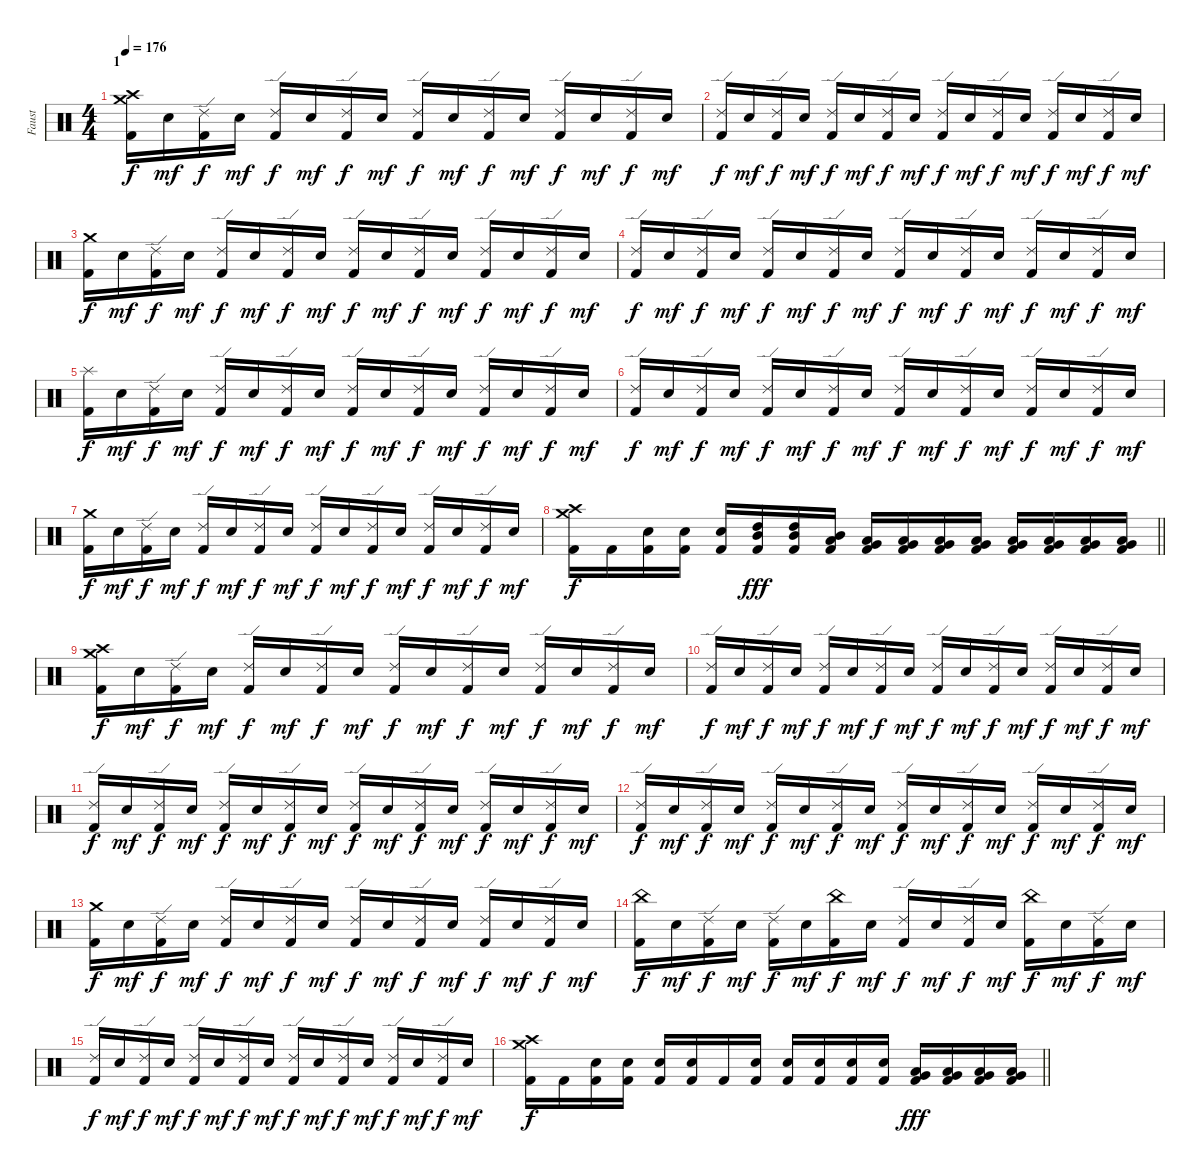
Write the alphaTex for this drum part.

\track ("Faust" "Faust") {instrument percussion}
\staff {score}
\articulation defaults
\ts (4 4)
\section ("" "1")
\tempo 176
\clef neutral
\ks c
("Crash high (hit)" "Crash medium (hit)" "Kick (hit) 2").16{dy f} "Electric Snare (hit)".16{dy mf} ("Ride (edge) 2" "Kick (hit) 2").16{dy f} "Electric Snare (hit)".16{dy mf} ("Ride (edge) 2" "Kick (hit) 2").16{dy f} "Electric Snare (hit)".16{dy mf} ("Ride (edge) 2" "Kick (hit) 2").16{dy f} "Electric Snare (hit)".16{dy mf} ("Ride (edge) 2" "Kick (hit) 2").16{dy f} "Electric Snare (hit)".16{dy mf} ("Ride (edge) 2" "Kick (hit) 2").16{dy f} "Electric Snare (hit)".16{dy mf} ("Ride (edge) 2" "Kick (hit) 2").16{dy f} "Electric Snare (hit)".16{dy mf} ("Ride (edge) 2" "Kick (hit) 2").16{dy f} "Electric Snare (hit)".16{dy mf} |
("Ride (edge) 2" "Kick (hit) 2").16{dy f} "Electric Snare (hit)".16{dy mf} ("Ride (edge) 2" "Kick (hit) 2").16{dy f} "Electric Snare (hit)".16{dy mf} ("Ride (edge) 2" "Kick (hit) 2").16{dy f} "Electric Snare (hit)".16{dy mf} ("Ride (edge) 2" "Kick (hit) 2").16{dy f} "Electric Snare (hit)".16{dy mf} ("Ride (edge) 2" "Kick (hit) 2").16{dy f} "Electric Snare (hit)".16{dy mf} ("Ride (edge) 2" "Kick (hit) 2").16{dy f} "Electric Snare (hit)".16{dy mf} ("Ride (edge) 2" "Kick (hit) 2").16{dy f} "Electric Snare (hit)".16{dy mf} ("Ride (edge) 2" "Kick (hit) 2").16{dy f} "Electric Snare (hit)".16{dy mf} |
("Crash medium (hit)" "Kick (hit) 2").16{dy f} "Electric Snare (hit)".16{dy mf} ("Ride (edge) 2" "Kick (hit) 2").16{dy f} "Electric Snare (hit)".16{dy mf} ("Ride (edge) 2" "Kick (hit) 2").16{dy f} "Electric Snare (hit)".16{dy mf} ("Ride (edge) 2" "Kick (hit) 2").16{dy f} "Electric Snare (hit)".16{dy mf} ("Ride (edge) 2" "Kick (hit) 2").16{dy f} "Electric Snare (hit)".16{dy mf} ("Ride (edge) 2" "Kick (hit) 2").16{dy f} "Electric Snare (hit)".16{dy mf} ("Ride (edge) 2" "Kick (hit) 2").16{dy f} "Electric Snare (hit)".16{dy mf} ("Ride (edge) 2" "Kick (hit) 2").16{dy f} "Electric Snare (hit)".16{dy mf} |
("Ride (edge) 2" "Kick (hit) 2").16{dy f} "Electric Snare (hit)".16{dy mf} ("Ride (edge) 2" "Kick (hit) 2").16{dy f} "Electric Snare (hit)".16{dy mf} ("Ride (edge) 2" "Kick (hit) 2").16{dy f} "Electric Snare (hit)".16{dy mf} ("Ride (edge) 2" "Kick (hit) 2").16{dy f} "Electric Snare (hit)".16{dy mf} ("Ride (edge) 2" "Kick (hit) 2").16{dy f} "Electric Snare (hit)".16{dy mf} ("Ride (edge) 2" "Kick (hit) 2").16{dy f} "Electric Snare (hit)".16{dy mf} ("Ride (edge) 2" "Kick (hit) 2").16{dy f} "Electric Snare (hit)".16{dy mf} ("Ride (edge) 2" "Kick (hit) 2").16{dy f} "Electric Snare (hit)".16{dy mf} |
("Splash (hit)" "Kick (hit) 2").16{dy f} "Electric Snare (hit)".16{dy mf} ("Ride (edge) 2" "Kick (hit) 2").16{dy f} "Electric Snare (hit)".16{dy mf} ("Ride (edge) 2" "Kick (hit) 2").16{dy f} "Electric Snare (hit)".16{dy mf} ("Ride (edge) 2" "Kick (hit) 2").16{dy f} "Electric Snare (hit)".16{dy mf} ("Ride (edge) 2" "Kick (hit) 2").16{dy f} "Electric Snare (hit)".16{dy mf} ("Ride (edge) 2" "Kick (hit) 2").16{dy f} "Electric Snare (hit)".16{dy mf} ("Ride (edge) 2" "Kick (hit) 2").16{dy f} "Electric Snare (hit)".16{dy mf} ("Ride (edge) 2" "Kick (hit) 2").16{dy f} "Electric Snare (hit)".16{dy mf} |
("Ride (edge) 2" "Kick (hit) 2").16{dy f} "Electric Snare (hit)".16{dy mf} ("Ride (edge) 2" "Kick (hit) 2").16{dy f} "Electric Snare (hit)".16{dy mf} ("Ride (edge) 2" "Kick (hit) 2").16{dy f} "Electric Snare (hit)".16{dy mf} ("Ride (edge) 2" "Kick (hit) 2").16{dy f} "Electric Snare (hit)".16{dy mf} ("Ride (edge) 2" "Kick (hit) 2").16{dy f} "Electric Snare (hit)".16{dy mf} ("Ride (edge) 2" "Kick (hit) 2").16{dy f} "Electric Snare (hit)".16{dy mf} ("Ride (edge) 2" "Kick (hit) 2").16{dy f} "Electric Snare (hit)".16{dy mf} ("Ride (edge) 2" "Kick (hit) 2").16{dy f} "Electric Snare (hit)".16{dy mf} |
("Crash medium (hit)" "Kick (hit) 2").16{dy f} "Electric Snare (hit)".16{dy mf} ("Ride (edge) 2" "Kick (hit) 2").16{dy f} "Electric Snare (hit)".16{dy mf} ("Ride (edge) 2" "Kick (hit) 2").16{dy f} "Electric Snare (hit)".16{dy mf} ("Ride (edge) 2" "Kick (hit) 2").16{dy f} "Electric Snare (hit)".16{dy mf} ("Ride (edge) 2" "Kick (hit) 2").16{dy f} "Electric Snare (hit)".16{dy mf} ("Ride (edge) 2" "Kick (hit) 2").16{dy f} "Electric Snare (hit)".16{dy mf} ("Ride (edge) 2" "Kick (hit) 2").16{dy f} "Electric Snare (hit)".16{dy mf} ("Ride (edge) 2" "Kick (hit) 2").16{dy f} "Electric Snare (hit)".16{dy mf} |
\barLineRight lightlight
("Crash medium (hit)" "Crash high (hit)" "Kick (hit) 2").16{dy f} "Kick (hit) 2".16 ("Electric Snare (hit)" "Kick (hit) 2").16 ("Electric Snare (hit)" "Kick (hit) 2").16 ("Electric Snare (hit)" "Kick (hit) 2").16 ("High Tom (hit)" "Mid Tom (hit)" "Kick (hit) 2").16{dy fff} ("High Tom (hit)" "Mid Tom (hit)" "Kick (hit) 2").16 ("Mid Tom (hit)" "Low Tom (hit)" "Kick (hit) 2").16 ("Low Tom (hit)" "Very Low Tom (hit)" "Kick (hit) 2").16 ("Low Tom (hit)" "Very Low Tom (hit)" "Kick (hit) 2").16 ("Low Tom (hit)" "Very Low Tom (hit)" "Kick (hit) 2").16 ("Low Tom (hit)" "Very Low Tom (hit)" "Kick (hit) 2").16 ("Very Low Tom (hit)" "Low Floor Tom (hit)" "Kick (hit) 2").16 ("Very Low Tom (hit)" "Low Floor Tom (hit)" "Kick (hit) 2").16 ("Very Low Tom (hit)" "Low Floor Tom (hit)" "Kick (hit) 2").16 ("Very Low Tom (hit)" "Low Floor Tom (hit)" "Kick (hit) 2").16 |
\section ("" "")
("Crash high (hit)" "Crash medium (hit)" "Kick (hit) 2").16{dy f} "Electric Snare (hit)".16{dy mf} ("Ride (edge) 2" "Kick (hit) 2").16{dy f} "Electric Snare (hit)".16{dy mf} ("Ride (edge) 2" "Kick (hit) 2").16{dy f} "Electric Snare (hit)".16{dy mf} ("Ride (edge) 2" "Kick (hit) 2").16{dy f} "Electric Snare (hit)".16{dy mf} ("Ride (edge) 2" "Kick (hit) 2").16{dy f} "Electric Snare (hit)".16{dy mf} ("Ride (edge) 2" "Kick (hit) 2").16{dy f} "Electric Snare (hit)".16{dy mf} ("Ride (edge) 2" "Kick (hit) 2").16{dy f} "Electric Snare (hit)".16{dy mf} ("Ride (edge) 2" "Kick (hit) 2").16{dy f} "Electric Snare (hit)".16{dy mf} |
("Ride (edge) 2" "Kick (hit) 2").16{dy f} "Electric Snare (hit)".16{dy mf} ("Ride (edge) 2" "Kick (hit) 2").16{dy f} "Electric Snare (hit)".16{dy mf} ("Ride (edge) 2" "Kick (hit) 2").16{dy f} "Electric Snare (hit)".16{dy mf} ("Ride (edge) 2" "Kick (hit) 2").16{dy f} "Electric Snare (hit)".16{dy mf} ("Ride (edge) 2" "Kick (hit) 2").16{dy f} "Electric Snare (hit)".16{dy mf} ("Ride (edge) 2" "Kick (hit) 2").16{dy f} "Electric Snare (hit)".16{dy mf} ("Ride (edge) 2" "Kick (hit) 2").16{dy f} "Electric Snare (hit)".16{dy mf} ("Ride (edge) 2" "Kick (hit) 2").16{dy f} "Electric Snare (hit)".16{dy mf} |
("Ride (edge) 2" "Kick (hit) 2").16{dy f} "Electric Snare (hit)".16{dy mf} ("Ride (edge) 2" "Kick (hit) 2").16{dy f} "Electric Snare (hit)".16{dy mf} ("Ride (edge) 2" "Kick (hit) 2").16{dy f} "Electric Snare (hit)".16{dy mf} ("Ride (edge) 2" "Kick (hit) 2").16{dy f} "Electric Snare (hit)".16{dy mf} ("Ride (edge) 2" "Kick (hit) 2").16{dy f} "Electric Snare (hit)".16{dy mf} ("Ride (edge) 2" "Kick (hit) 2").16{dy f} "Electric Snare (hit)".16{dy mf} ("Ride (edge) 2" "Kick (hit) 2").16{dy f} "Electric Snare (hit)".16{dy mf} ("Ride (edge) 2" "Kick (hit) 2").16{dy f} "Electric Snare (hit)".16{dy mf} |
("Ride (edge) 2" "Kick (hit) 2").16{dy f} "Electric Snare (hit)".16{dy mf} ("Ride (edge) 2" "Kick (hit) 2").16{dy f} "Electric Snare (hit)".16{dy mf} ("Ride (edge) 2" "Kick (hit) 2").16{dy f} "Electric Snare (hit)".16{dy mf} ("Ride (edge) 2" "Kick (hit) 2").16{dy f} "Electric Snare (hit)".16{dy mf} ("Ride (edge) 2" "Kick (hit) 2").16{dy f} "Electric Snare (hit)".16{dy mf} ("Ride (edge) 2" "Kick (hit) 2").16{dy f} "Electric Snare (hit)".16{dy mf} ("Ride (edge) 2" "Kick (hit) 2").16{dy f} "Electric Snare (hit)".16{dy mf} ("Ride (edge) 2" "Kick (hit) 2").16{dy f} "Electric Snare (hit)".16{dy mf} |
("Crash medium (hit)" "Kick (hit) 2").16{dy f} "Electric Snare (hit)".16{dy mf} ("Ride (edge) 2" "Kick (hit) 2").16{dy f} "Electric Snare (hit)".16{dy mf} ("Ride (edge) 2" "Kick (hit) 2").16{dy f} "Electric Snare (hit)".16{dy mf} ("Ride (edge) 2" "Kick (hit) 2").16{dy f} "Electric Snare (hit)".16{dy mf} ("Ride (edge) 2" "Kick (hit) 2").16{dy f} "Electric Snare (hit)".16{dy mf} ("Ride (edge) 2" "Kick (hit) 2").16{dy f} "Electric Snare (hit)".16{dy mf} ("Ride (edge) 2" "Kick (hit) 2").16{dy f} "Electric Snare (hit)".16{dy mf} ("Ride (edge) 2" "Kick (hit) 2").16{dy f} "Electric Snare (hit)".16{dy mf} |
("China (hit)" "Kick (hit) 2").16{dy f} "Electric Snare (hit)".16{dy mf} ("Ride (edge) 2" "Kick (hit) 2").16{dy f} "Electric Snare (hit)".16{dy mf} ("Ride (edge) 2" "Kick (hit) 2").16{dy f} "Electric Snare (hit)".16{dy mf} ("China (hit)" "Kick (hit) 2").16{dy f} "Electric Snare (hit)".16{dy mf} ("Ride (edge) 2" "Kick (hit) 2").16{dy f} "Electric Snare (hit)".16{dy mf} ("Ride (edge) 2" "Kick (hit) 2").16{dy f} "Electric Snare (hit)".16{dy mf} ("China (hit)" "Kick (hit) 2").16{dy f} "Electric Snare (hit)".16{dy mf} ("Ride (edge) 2" "Kick (hit) 2").16{dy f} "Electric Snare (hit)".16{dy mf} |
("Ride (edge) 2" "Kick (hit) 2").16{dy f} "Electric Snare (hit)".16{dy mf} ("Ride (edge) 2" "Kick (hit) 2").16{dy f} "Electric Snare (hit)".16{dy mf} ("Ride (edge) 2" "Kick (hit) 2").16{dy f} "Electric Snare (hit)".16{dy mf} ("Ride (edge) 2" "Kick (hit) 2").16{dy f} "Electric Snare (hit)".16{dy mf} ("Ride (edge) 2" "Kick (hit) 2").16{dy f} "Electric Snare (hit)".16{dy mf} ("Ride (edge) 2" "Kick (hit) 2").16{dy f} "Electric Snare (hit)".16{dy mf} ("Ride (edge) 2" "Kick (hit) 2").16{dy f} "Electric Snare (hit)".16{dy mf} ("Ride (edge) 2" "Kick (hit) 2").16{dy f} "Electric Snare (hit)".16{dy mf} |
\barLineRight lightlight
("Crash high (hit)" "Crash medium (hit)" "Kick (hit) 2").16{dy f} "Kick (hit) 2".16 ("Electric Snare (hit)" "Kick (hit) 2").16 ("Electric Snare (hit)" "Kick (hit) 2").16 ("Electric Snare (hit)" "Kick (hit) 2").16 ("Electric Snare (hit)" "Kick (hit) 2").16 "Kick (hit) 2".16 ("Electric Snare (hit)" "Kick (hit) 2").16 ("Electric Snare (hit)" "Kick (hit) 2").16 ("Electric Snare (hit)" "Kick (hit) 2").16 ("Electric Snare (hit)" "Kick (hit) 2").16 ("Electric Snare (hit)" "Kick (hit) 2").16 ("Very Low Tom (hit)" "Low Tom (hit)" "Kick (hit) 2").16{dy fff} ("Very Low Tom (hit)" "Low Tom (hit)" "Kick (hit) 2").16 ("Low Floor Tom (hit)" "Very Low Tom (hit)" "Kick (hit) 2").16 ("Low Floor Tom (hit)" "Very Low Tom (hit)" "Kick (hit) 2").16
